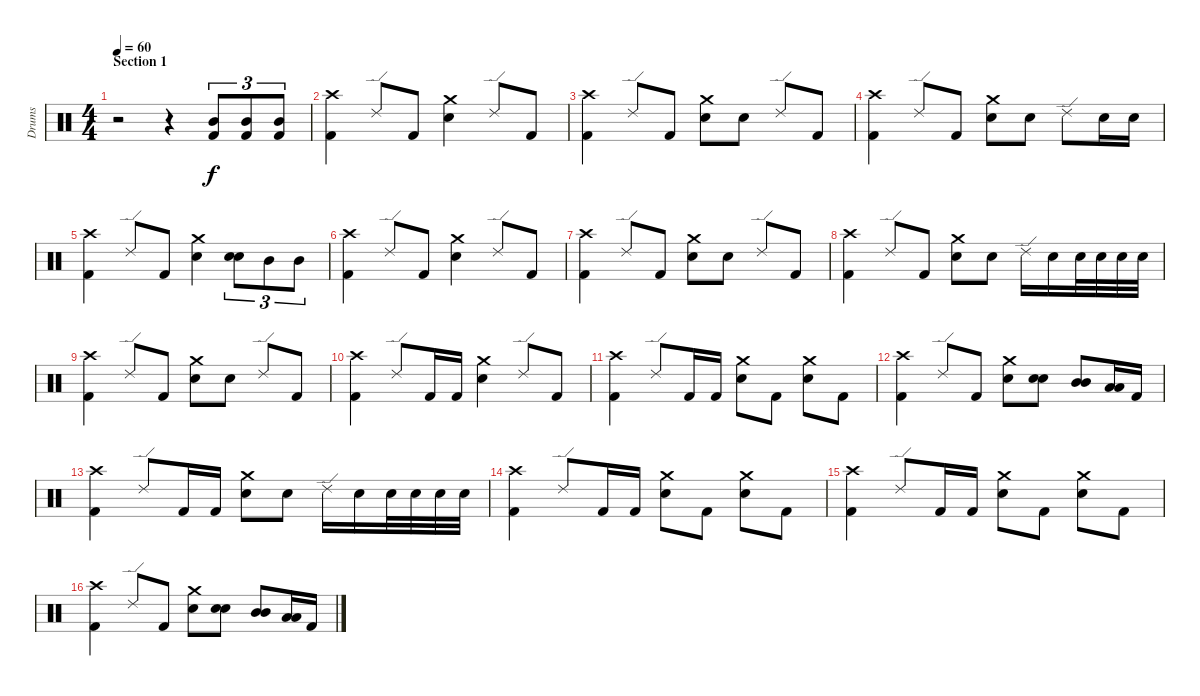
\track ("Drums" "Drums") {instrument percussion}
\staff {score}
\articulation defaults
\ts (4 4)
\section ("" "Section 1")
\tempo 60
\clef neutral
\ks c
r.2{dy f} r.4 ("Mid Tom (hit)" "Kick (hit) 2").8{tu (3 2)} ("Mid Tom (hit)" "Kick (hit) 2").8{tu (3 2)} ("Mid Tom (hit)" "Kick (hit) 2").8{tu (3 2)} |
("Crash high (hit)" "Kick (hit) 2").4 "Ride (edge) 2".8 "Kick (hit) 2".8 ("Crash medium (hit)" "Electric Snare (hit)").4 "Ride (edge) 2".8 "Kick (hit) 2".8 |
("Crash high (hit)" "Kick (hit) 2").4 "Ride (edge) 2".8 "Kick (hit) 2".8 ("Crash medium (hit)" "Electric Snare (hit)").8 "Electric Snare (hit)".8 "Ride (edge) 2".8 "Kick (hit) 2".8 |
("Crash high (hit)" "Kick (hit) 2").4 "Ride (edge) 2".8 "Kick (hit) 2".8 ("Crash medium (hit)" "Electric Snare (hit)").8 "Electric Snare (hit)".8 "Ride (edge) 2".8 "Electric Snare (hit)".16 "Electric Snare (hit)".16 |
("Crash high (hit)" "Kick (hit) 2").4 "Ride (edge) 2".8 "Kick (hit) 2".8 ("Crash medium (hit)" "Electric Snare (hit)").4 ("Electric Snare (hit)" "Electric Snare (hit)").8{tu (3 2) bu 60} "Mid Tom (hit)".8{tu (3 2)} "Mid Tom (hit)".8{tu (3 2)} |
("Crash high (hit)" "Kick (hit) 2").4 "Ride (edge) 2".8 "Kick (hit) 2".8 ("Crash medium (hit)" "Electric Snare (hit)").4 "Ride (edge) 2".8 "Kick (hit) 2".8 |
("Crash high (hit)" "Kick (hit) 2").4 "Ride (edge) 2".8 "Kick (hit) 2".8 ("Crash medium (hit)" "Electric Snare (hit)").8 "Electric Snare (hit)".8 "Ride (edge) 2".8 "Kick (hit) 2".8 |
("Crash high (hit)" "Kick (hit) 2").4 "Ride (edge) 2".8 "Kick (hit) 2".8 ("Crash medium (hit)" "Electric Snare (hit)").8 "Electric Snare (hit)".8 "Ride (edge) 2".16 "Electric Snare (hit)".16 "Electric Snare (hit)".32 "Electric Snare (hit)".32 "Electric Snare (hit)".32 "Electric Snare (hit)".32 |
("Crash high (hit)" "Kick (hit) 2").4 "Ride (edge) 2".8 "Kick (hit) 2".8 ("Crash medium (hit)" "Electric Snare (hit)").8 "Electric Snare (hit)".8 "Ride (edge) 2".8 "Kick (hit) 2".8 |
("Crash high (hit)" "Kick (hit) 2").4 "Ride (edge) 2".8 "Kick (hit) 2".16 "Kick (hit) 2".16 ("Crash medium (hit)" "Electric Snare (hit)").4 "Ride (edge) 2".8 "Kick (hit) 2".8 |
("Crash high (hit)" "Kick (hit) 2").4 "Ride (edge) 2".8 "Kick (hit) 2".16 "Kick (hit) 2".16 ("Crash medium (hit)" "Electric Snare (hit)").8 "Kick (hit) 2".8 ("Crash medium (hit)" "Electric Snare (hit)").8 "Kick (hit) 2".8 |
("Crash high (hit)" "Kick (hit) 2").4 "Ride (edge) 2".8 "Kick (hit) 2".8 ("Crash medium (hit)" "Electric Snare (hit)").8 ("Electric Snare (hit)" "Electric Snare (hit)").8{bu 60} ("Mid Tom (hit)" "Mid Tom (hit)").8{bu 60} ("Low Tom (hit)" "Low Tom (hit)").16{bu 60} "Kick (hit) 2".16 |
("Crash high (hit)" "Kick (hit) 2").4 "Ride (edge) 2".8 "Kick (hit) 2".16 "Kick (hit) 2".16 ("Crash medium (hit)" "Electric Snare (hit)").8 "Electric Snare (hit)".8 "Ride (edge) 2".16 "Electric Snare (hit)".16 "Electric Snare (hit)".32 "Electric Snare (hit)".32 "Electric Snare (hit)".32 "Electric Snare (hit)".32 |
("Crash high (hit)" "Kick (hit) 2").4 "Ride (edge) 2".8 "Kick (hit) 2".16 "Kick (hit) 2".16 ("Crash medium (hit)" "Electric Snare (hit)").8 "Kick (hit) 2".8 ("Crash medium (hit)" "Electric Snare (hit)").8 "Kick (hit) 2".8 |
("Crash high (hit)" "Kick (hit) 2").4 "Ride (edge) 2".8 "Kick (hit) 2".16 "Kick (hit) 2".16 ("Crash medium (hit)" "Electric Snare (hit)").8 "Kick (hit) 2".8 ("Crash medium (hit)" "Electric Snare (hit)").8 "Kick (hit) 2".8 |
("Crash high (hit)" "Kick (hit) 2").4 "Ride (edge) 2".8 "Kick (hit) 2".8 ("Crash medium (hit)" "Electric Snare (hit)").8 ("Electric Snare (hit)" "Electric Snare (hit)").8{bu 60} ("Mid Tom (hit)" "Mid Tom (hit)").8{bu 60} ("Low Tom (hit)" "Low Tom (hit)").16{bu 60} "Kick (hit) 2".16
